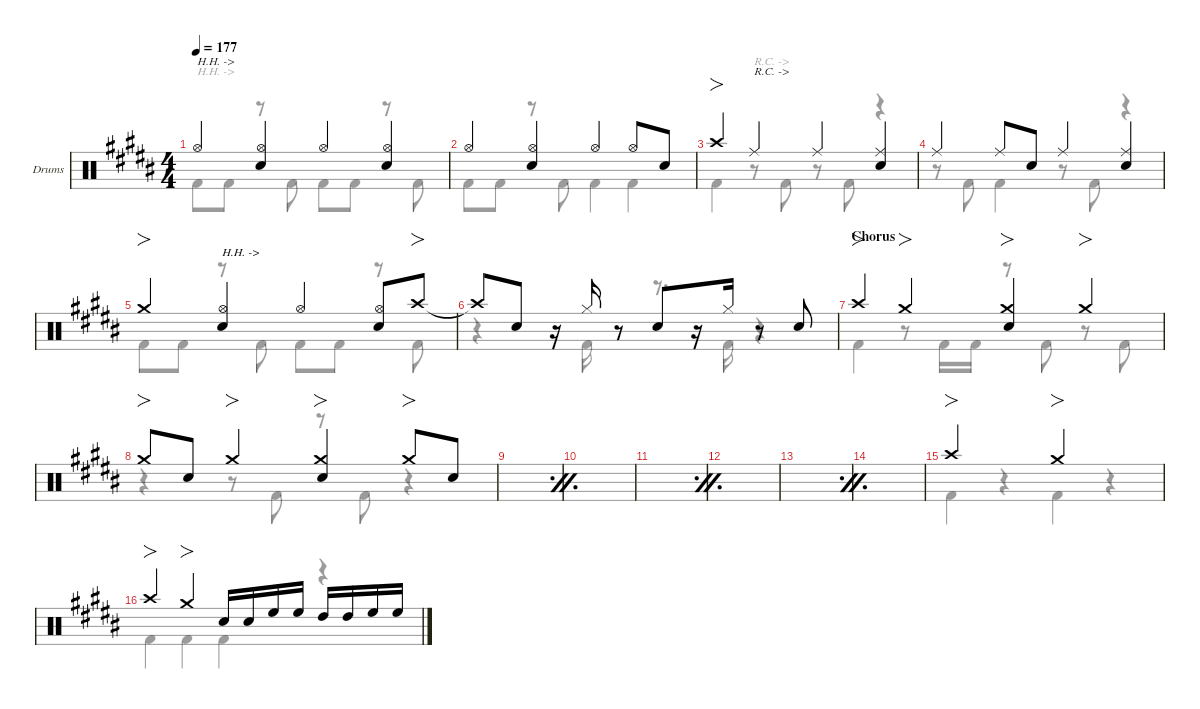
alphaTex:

\defaultSystemsLayout 4
\hideDynamics
\bracketExtendMode nobrackets
\firstSystemTrackNameOrientation horizontal
\track ("Drums" "Drums") {defaultSystemsLayout 4 instrument percussion}
\staff {score}
\articulation defaults
\voice
\ts (4 4)
\tempo 177
\clef neutral
\scale
0.244697
\ks g#minor "Hi-Hat (open)"{acc forcenatural}.4{txt "H.H. ->" dy f beam Up}
("Hi-Hat (open)"{acc forcenatural} "Snare (hit) 2"{acc forcenatural}).4{beam Up} "Hi-Hat (open)"{acc forcenatural}.4{beam Up} ("Hi-Hat (open)"{acc forcenatural} "Snare (hit) 2"{acc forcenatural}).4{beam Up} |
\scale
0.244697 "Hi-Hat (open)"{acc forcenatural}.4{beam Up} ("Hi-Hat (open)"{acc forcenatural} "Snare (hit) 2"{acc forcenatural}).4{beam Up} "Hi-Hat (open)"{acc forcenatural}.4{beam Up} "Hi-Hat (open)"{acc forcenatural}.8{beam Up} "Snare (hit) 2"{acc forcenatural}.8{beam Up} |
\scale
0.265908 "Crash high (hit)"{acc forcenatural}.4{fo beam Up} "Ride (middle)"{acc forcenatural}.4{txt "R.C. ->" beam Up} "Ride (middle)"{acc forcenatural}.4{beam Up} ("Ride (middle)"{acc forcenatural} "Snare (hit) 2"{acc forcenatural}).4{beam Up} |
\scale
0.245171 "Ride (middle)"{acc forcenatural}.4{beam Up} "Ride (middle)"{acc forcenatural}.8{beam Up} "Snare (hit) 2"{acc forcenatural}.8{beam Up} "Ride (middle)"{acc forcenatural}.4{beam Up} ("Ride (middle)"{acc forcenatural} "Snare (hit) 2"{acc forcenatural}).4{beam Up} |
\scale
0.244224 "Crash medium (hit)"{acc forcenatural}.4{fo beam Up} ("Hi-Hat (open)"{acc forcenatural} "Snare (hit) 2"{acc forcenatural}).4{txt "H.H. ->" beam Up} "Hi-Hat (open)"{acc forcenatural}.4{beam Up} ("Hi-Hat (open)"{acc forcenatural} "Snare (hit) 2"{acc forcenatural}).8{beam Up} "Crash high (hit)"{acc forcenatural}.8{fo beam Up} |
\scale
0.244697 "Crash high (hit)"{t acc forcenatural}.8{beam Up} "Snare (hit) 2"{acc forcenatural}.8{beam Up beam split} r.16{beam Up beam split} "Hi-Hat (closed)"{acc forcenatural}.16{beam Up} r.8{beam Up} "Snare (hit) 2"{acc forcenatural}.8{beam Up beam merge} r.16{beam Up beam merge} "Hi-Hat (closed)"{acc forcenatural}.16{beam Up beam split} r.8{beam Up beam split} "Snare (hit) 2"{acc forcenatural}.8{beam Up} |
\section ("" "Chorus")
\scale
0.265908 "Crash high (hit)"{acc forcenatural}.4{fo beam Up} "Crash medium (hit)"{acc forcenatural}.4{fo beam Up} ("Crash medium (hit)"{acc forcenatural} "Snare (hit) 2"{acc forcenatural}).4{fo beam Up} "Crash medium (hit)"{acc forcenatural}.4{fo beam Up} |
\scale
0.245171 "Crash medium (hit)"{acc forcenatural}.8{fo beam Up} "Snare (hit) 2"{acc forcenatural}.8{beam Up} "Crash medium (hit)"{acc forcenatural}.4{fo beam Up} ("Crash medium (hit)"{acc forcenatural} "Snare (hit) 2"{acc forcenatural}).4{fo beam Up} "Crash medium (hit)"{acc forcenatural}.8{fo beam Up} "Snare (hit) 2"{acc forcenatural}.8{beam Up} |
\simile firstofdouble
\scale
0.24446 |
\simile secondofdouble
\scale
0.244461 |
\simile firstofdouble
\scale
0.266618 |
\simile secondofdouble
\scale
0.244461 |
\simile firstofdouble
\scale
0.24446 |
\simile secondofdouble
\scale
0.244461 |
\simile none
\scale
0.266618 "Crash high (hit)"{acc forcenatural}.2{fo beam Up} "Crash medium (hit)"{acc forcenatural}.2{fo beam Up} |
\scale
0.244461 "Crash high (hit)"{acc forcenatural}.4{fo beam Up} "Crash medium (hit)"{acc forcenatural}.4{fo beam Up} "Snare (hit) 2"{acc forcenatural}.16{beam Up} "Snare (hit) 2"{acc forcenatural}.16{beam Up} "High Floor Tom (hit)"{acc forcenatural}.16{beam Up} "High Floor Tom (hit)"{acc forcenatural}.16{beam Up beam split} "High Tom (hit)"{acc forcenatural}.16{beam Up} "High Tom (hit)"{acc forcenatural}.16{beam Up} "High Floor Tom (hit)"{acc forcenatural}.16{beam Up} "High Floor Tom (hit)"{acc forcenatural}.16{beam Up}
\voice
\clef neutral
\ottava regular
\simile none
\scale
0.244697
\ks g#minor "Kick (hit) 2"{acc forcenatural}.8{txt "H.H. ->" dy f beam Down} "Kick (hit) 2"{acc forcenatural}.8{beam Down}
r.8{beam Down} "Kick (hit) 2"{acc forcenatural}.8{beam Down} "Kick (hit) 2"{acc forcenatural}.8{beam Down} "Kick (hit) 2"{acc forcenatural}.8{beam Down} r.8{beam Down} "Kick (hit) 2"{acc forcenatural}.8{beam Down} |
\scale
0.244697 "Kick (hit) 2"{acc forcenatural}.8{beam Down} "Kick (hit) 2"{acc forcenatural}.8{beam Down} r.8{beam Down} "Kick (hit) 2"{acc forcenatural}.8{beam Down} "Kick (hit) 2"{acc forcenatural}.4{beam Down} "Kick (hit) 2"{acc forcenatural}.4{beam Down} |
\scale
0.265908 "Kick (hit) 2"{acc forcenatural}.4{beam Down} r.8{txt "R.C. ->" beam Down} "Kick (hit) 2"{acc forcenatural}.8{beam Down} r.8{beam Down} "Kick (hit) 2"{acc forcenatural}.8{beam Down} r.4{beam Down} |
\scale
0.245171 r.8{beam Down} "Kick (hit) 2"{acc forcenatural}.8{beam Down} "Kick (hit) 2"{acc forcenatural}.4{beam Down} r.8{beam Down} "Kick (hit) 2"{acc forcenatural}.8{beam Down} r.4{beam Down} |
\scale
0.244224 "Kick (hit) 2"{acc forcenatural}.8{beam Down} "Kick (hit) 2"{acc forcenatural}.8{beam Down} r.8{txt "H.H. ->" beam Down} "Kick (hit) 2"{acc forcenatural}.8{beam Down} "Kick (hit) 2"{acc forcenatural}.8{beam Down} "Kick (hit) 2"{acc forcenatural}.8{beam Down} r.8{beam Down} "Kick (hit) 2"{acc forcenatural}.8{beam Down} |
\scale
0.244697 r.4{beam Down} r.16{beam Down} "Kick (hit) 2"{acc forcenatural}.16{beam Down} r.8{beam Down} r.8{d beam Down} "Kick (hit) 2"{acc forcenatural}.16{beam Down} r.4{beam Down} |
\scale
0.265908 "Kick (hit) 2"{acc forcenatural}.4{beam Down} r.8{beam Down} "Kick (hit) 2"{acc forcenatural}.16{beam Down} "Kick (hit) 2"{acc forcenatural}.16{beam Down} r.8{beam Down} "Kick (hit) 2"{acc forcenatural}.8{beam Down} r.8{beam Down} "Kick (hit) 2"{acc forcenatural}.8{beam Down} |
\scale
0.245171 r.4{beam Down} r.8{beam Down} "Kick (hit) 2"{acc forcenatural}.8{beam Down} r.8{beam Down} "Kick (hit) 2"{acc forcenatural}.8{beam Down} r.4{beam Down} |
\simile firstofdouble
\scale
0.24446 |
\simile secondofdouble
\scale
0.244461 |
\simile firstofdouble
\scale
0.266618 |
\simile secondofdouble
\scale
0.244461 |
\simile firstofdouble
\scale
0.24446 |
\simile secondofdouble
\scale
0.244461 |
\simile none
\scale
0.266618 "Kick (hit) 2"{acc forcenatural}.4{beam Down} r.4{beam Down} "Kick (hit) 2"{acc forcenatural}.4{beam Down} r.4{beam Down} |
\scale
0.244461 "Kick (hit) 2"{acc forcenatural}.4{beam Down} "Kick (hit) 2"{acc forcenatural}.4{beam Down} "Kick (hit) 2"{acc forcenatural}.4{beam Down} r.4{beam Down}
